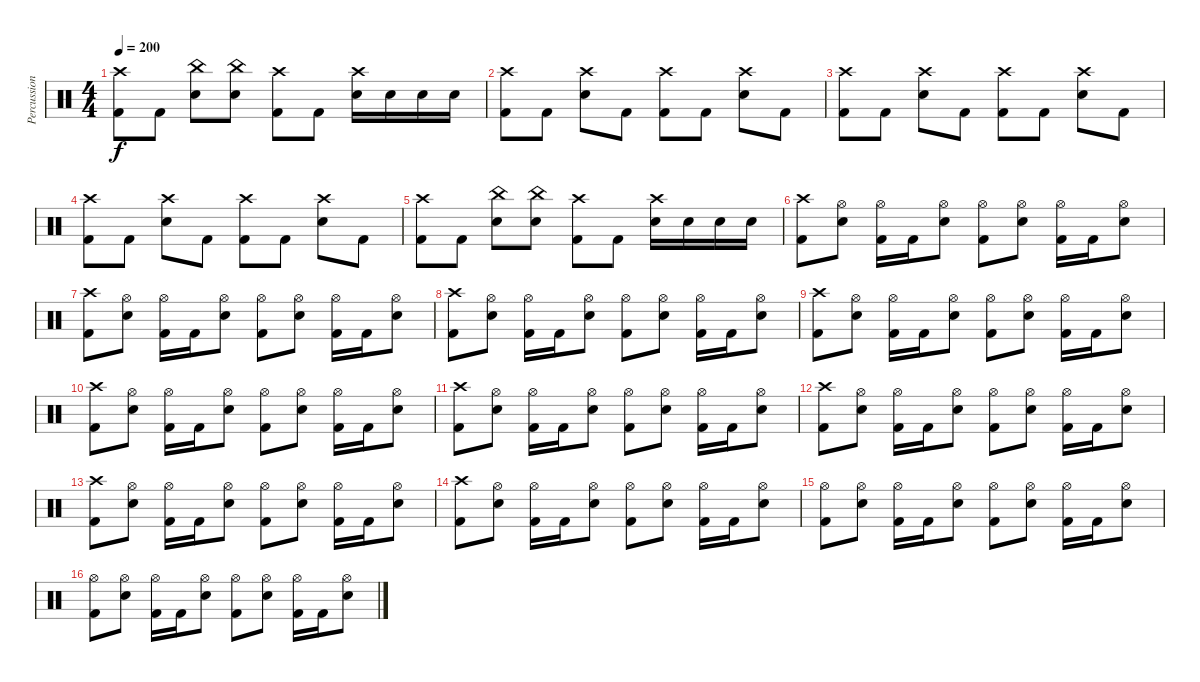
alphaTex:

\track ("Percussions" "Percussion") {instrument percussion}
\staff {score}
\articulation defaults
\ts (4 4)
\tempo 200
\clef neutral
\ks c
("Crash high (hit)" "Kick (hit) 2").8{dy f volume 16} "Kick (hit) 2".8 ("China (hit)" "Snare (hit) 2").8 ("China (hit)" "Snare (hit) 2").8 ("Crash high (hit)" "Kick (hit) 2").8 "Kick (hit) 2".8 ("Crash high (hit)" "Snare (hit) 2").16 "Snare (hit) 2".16 "Snare (hit) 2".16 "Snare (hit) 2".16 |
("Crash high (hit)" "Kick (hit) 2").8{volume 16} "Kick (hit) 2".8 ("Crash high (hit)" "Snare (hit) 2").8 "Kick (hit) 2".8 ("Crash high (hit)" "Kick (hit) 2").8 "Kick (hit) 2".8 ("Crash high (hit)" "Snare (hit) 2").8 "Kick (hit) 2".8 |
("Crash high (hit)" "Kick (hit) 2").8{volume 16} "Kick (hit) 2".8 ("Crash high (hit)" "Snare (hit) 2").8 "Kick (hit) 2".8 ("Crash high (hit)" "Kick (hit) 2").8 "Kick (hit) 2".8 ("Crash high (hit)" "Snare (hit) 2").8 "Kick (hit) 2".8 |
("Crash high (hit)" "Kick (hit) 2").8{volume 16} "Kick (hit) 2".8 ("Crash high (hit)" "Snare (hit) 2").8 "Kick (hit) 2".8 ("Crash high (hit)" "Kick (hit) 2").8 "Kick (hit) 2".8 ("Crash high (hit)" "Snare (hit) 2").8 "Kick (hit) 2".8 |
("Crash high (hit)" "Kick (hit) 2").8{volume 16} "Kick (hit) 2".8 ("China (hit)" "Snare (hit) 2").8 ("China (hit)" "Snare (hit) 2").8 ("Crash high (hit)" "Kick (hit) 2").8 "Kick (hit) 2".8 ("Crash high (hit)" "Snare (hit) 2").16 "Snare (hit) 2".16 "Snare (hit) 2".16 "Snare (hit) 2".16 |
("Crash high (hit)" "Kick (hit) 2").8 ("Hi-Hat (open)" "Snare (hit) 2").8 ("Hi-Hat (open)" "Kick (hit) 2").16 "Kick (hit) 2".16 ("Hi-Hat (open)" "Snare (hit) 2").8 ("Hi-Hat (open)" "Kick (hit) 2").8 ("Hi-Hat (open)" "Snare (hit) 2").8 ("Hi-Hat (open)" "Kick (hit) 2").16 "Kick (hit) 2".16 ("Hi-Hat (open)" "Snare (hit) 2").8 |
("Crash high (hit)" "Kick (hit) 2").8 ("Hi-Hat (open)" "Snare (hit) 2").8 ("Hi-Hat (open)" "Kick (hit) 2").16 "Kick (hit) 2".16 ("Hi-Hat (open)" "Snare (hit) 2").8 ("Hi-Hat (open)" "Kick (hit) 2").8 ("Hi-Hat (open)" "Snare (hit) 2").8 ("Hi-Hat (open)" "Kick (hit) 2").16 "Kick (hit) 2".16 ("Hi-Hat (open)" "Snare (hit) 2").8 |
("Crash high (hit)" "Kick (hit) 2").8 ("Hi-Hat (open)" "Snare (hit) 2").8 ("Hi-Hat (open)" "Kick (hit) 2").16 "Kick (hit) 2".16 ("Hi-Hat (open)" "Snare (hit) 2").8 ("Hi-Hat (open)" "Kick (hit) 2").8 ("Hi-Hat (open)" "Snare (hit) 2").8 ("Hi-Hat (open)" "Kick (hit) 2").16 "Kick (hit) 2".16 ("Hi-Hat (open)" "Snare (hit) 2").8 |
("Crash high (hit)" "Kick (hit) 2").8 ("Hi-Hat (open)" "Snare (hit) 2").8 ("Hi-Hat (open)" "Kick (hit) 2").16 "Kick (hit) 2".16 ("Hi-Hat (open)" "Snare (hit) 2").8 ("Hi-Hat (open)" "Kick (hit) 2").8 ("Hi-Hat (open)" "Snare (hit) 2").8 ("Hi-Hat (open)" "Kick (hit) 2").16 "Kick (hit) 2".16 ("Hi-Hat (open)" "Snare (hit) 2").8 |
("Crash high (hit)" "Kick (hit) 2").8 ("Hi-Hat (open)" "Snare (hit) 2").8 ("Hi-Hat (open)" "Kick (hit) 2").16 "Kick (hit) 2".16 ("Hi-Hat (open)" "Snare (hit) 2").8 ("Hi-Hat (open)" "Kick (hit) 2").8 ("Hi-Hat (open)" "Snare (hit) 2").8 ("Hi-Hat (open)" "Kick (hit) 2").16 "Kick (hit) 2".16 ("Hi-Hat (open)" "Snare (hit) 2").8 |
("Crash high (hit)" "Kick (hit) 2").8 ("Hi-Hat (open)" "Snare (hit) 2").8 ("Hi-Hat (open)" "Kick (hit) 2").16 "Kick (hit) 2".16 ("Hi-Hat (open)" "Snare (hit) 2").8 ("Hi-Hat (open)" "Kick (hit) 2").8 ("Hi-Hat (open)" "Snare (hit) 2").8 ("Hi-Hat (open)" "Kick (hit) 2").16 "Kick (hit) 2".16 ("Hi-Hat (open)" "Snare (hit) 2").8 |
("Crash high (hit)" "Kick (hit) 2").8 ("Hi-Hat (open)" "Snare (hit) 2").8 ("Hi-Hat (open)" "Kick (hit) 2").16 "Kick (hit) 2".16 ("Hi-Hat (open)" "Snare (hit) 2").8 ("Hi-Hat (open)" "Kick (hit) 2").8 ("Hi-Hat (open)" "Snare (hit) 2").8 ("Hi-Hat (open)" "Kick (hit) 2").16 "Kick (hit) 2".16 ("Hi-Hat (open)" "Snare (hit) 2").8 |
("Crash high (hit)" "Kick (hit) 2").8 ("Hi-Hat (open)" "Snare (hit) 2").8 ("Hi-Hat (open)" "Kick (hit) 2").16 "Kick (hit) 2".16 ("Hi-Hat (open)" "Snare (hit) 2").8 ("Hi-Hat (open)" "Kick (hit) 2").8 ("Hi-Hat (open)" "Snare (hit) 2").8 ("Hi-Hat (open)" "Kick (hit) 2").16 "Kick (hit) 2".16 ("Hi-Hat (open)" "Snare (hit) 2").8 |
("Crash high (hit)" "Kick (hit) 2").8 ("Hi-Hat (open)" "Snare (hit) 2").8 ("Hi-Hat (open)" "Kick (hit) 2").16 "Kick (hit) 2".16 ("Hi-Hat (open)" "Snare (hit) 2").8 ("Hi-Hat (open)" "Kick (hit) 2").8 ("Hi-Hat (open)" "Snare (hit) 2").8 ("Hi-Hat (open)" "Kick (hit) 2").16 "Kick (hit) 2".16 ("Hi-Hat (open)" "Snare (hit) 2").8 |
("Hi-Hat (open)" "Kick (hit) 2").8 ("Hi-Hat (open)" "Snare (hit) 2").8 ("Hi-Hat (open)" "Kick (hit) 2").16 "Kick (hit) 2".16 ("Hi-Hat (open)" "Snare (hit) 2").8 ("Hi-Hat (open)" "Kick (hit) 2").8 ("Hi-Hat (open)" "Snare (hit) 2").8 ("Hi-Hat (open)" "Kick (hit) 2").16 "Kick (hit) 2".16 ("Hi-Hat (open)" "Snare (hit) 2").8 |
("Hi-Hat (open)" "Kick (hit) 2").8 ("Hi-Hat (open)" "Snare (hit) 2").8 ("Hi-Hat (open)" "Kick (hit) 2").16 "Kick (hit) 2".16 ("Hi-Hat (open)" "Snare (hit) 2").8 ("Hi-Hat (open)" "Kick (hit) 2").8 ("Hi-Hat (open)" "Snare (hit) 2").8 ("Hi-Hat (open)" "Kick (hit) 2").16 "Kick (hit) 2".16 ("Hi-Hat (open)" "Snare (hit) 2").8
